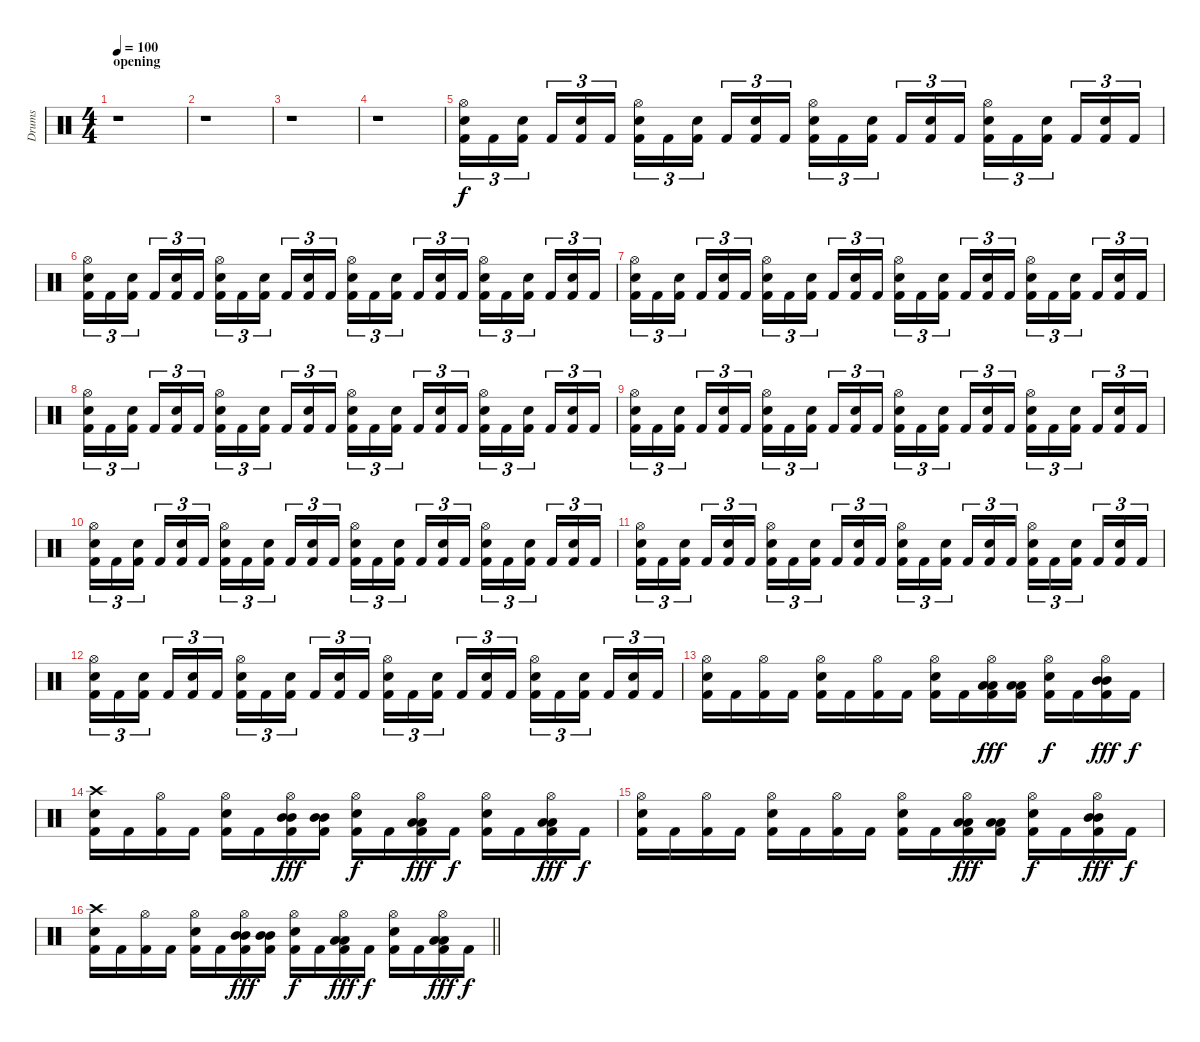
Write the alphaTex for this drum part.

\track ("Drums" "Drums") {instrument percussion}
\staff {score}
\articulation defaults
\ts (4 4)
\section ("" "opening")
\tempo 100
\clef neutral
\ks c
r.1{dy f} |
r.1 |
r.1 |
r.1 |
("Hi-Hat (open)" "Electric Snare (hit)" "Kick (hit) 2").16{tu (3 2)} "Kick (hit) 2".16{tu (3 2)} ("Electric Snare (hit)" "Kick (hit) 2").16{tu (3 2)} "Kick (hit) 2".16{tu (3 2)} ("Electric Snare (hit)" "Kick (hit) 2").16{tu (3 2)} "Kick (hit) 2".16{tu (3 2)} ("Hi-Hat (open)" "Electric Snare (hit)" "Kick (hit) 2").16{tu (3 2)} "Kick (hit) 2".16{tu (3 2)} ("Electric Snare (hit)" "Kick (hit) 2").16{tu (3 2)} "Kick (hit) 2".16{tu (3 2)} ("Electric Snare (hit)" "Kick (hit) 2").16{tu (3 2)} "Kick (hit) 2".16{tu (3 2)} ("Hi-Hat (open)" "Electric Snare (hit)" "Kick (hit) 2").16{tu (3 2)} "Kick (hit) 2".16{tu (3 2)} ("Electric Snare (hit)" "Kick (hit) 2").16{tu (3 2)} "Kick (hit) 2".16{tu (3 2)} ("Electric Snare (hit)" "Kick (hit) 2").16{tu (3 2)} "Kick (hit) 2".16{tu (3 2)} ("Hi-Hat (open)" "Electric Snare (hit)" "Kick (hit) 2").16{tu (3 2)} "Kick (hit) 2".16{tu (3 2)} ("Electric Snare (hit)" "Kick (hit) 2").16{tu (3 2)} "Kick (hit) 2".16{tu (3 2)} ("Electric Snare (hit)" "Kick (hit) 2").16{tu (3 2)} "Kick (hit) 2".16{tu (3 2)} |
("Hi-Hat (open)" "Electric Snare (hit)" "Kick (hit) 2").16{tu (3 2)} "Kick (hit) 2".16{tu (3 2)} ("Electric Snare (hit)" "Kick (hit) 2").16{tu (3 2)} "Kick (hit) 2".16{tu (3 2)} ("Electric Snare (hit)" "Kick (hit) 2").16{tu (3 2)} "Kick (hit) 2".16{tu (3 2)} ("Hi-Hat (open)" "Electric Snare (hit)" "Kick (hit) 2").16{tu (3 2)} "Kick (hit) 2".16{tu (3 2)} ("Electric Snare (hit)" "Kick (hit) 2").16{tu (3 2)} "Kick (hit) 2".16{tu (3 2)} ("Electric Snare (hit)" "Kick (hit) 2").16{tu (3 2)} "Kick (hit) 2".16{tu (3 2)} ("Hi-Hat (open)" "Electric Snare (hit)" "Kick (hit) 2").16{tu (3 2)} "Kick (hit) 2".16{tu (3 2)} ("Electric Snare (hit)" "Kick (hit) 2").16{tu (3 2)} "Kick (hit) 2".16{tu (3 2)} ("Electric Snare (hit)" "Kick (hit) 2").16{tu (3 2)} "Kick (hit) 2".16{tu (3 2)} ("Hi-Hat (open)" "Electric Snare (hit)" "Kick (hit) 2").16{tu (3 2)} "Kick (hit) 2".16{tu (3 2)} ("Electric Snare (hit)" "Kick (hit) 2").16{tu (3 2)} "Kick (hit) 2".16{tu (3 2)} ("Electric Snare (hit)" "Kick (hit) 2").16{tu (3 2)} "Kick (hit) 2".16{tu (3 2)} |
("Hi-Hat (open)" "Electric Snare (hit)" "Kick (hit) 2").16{tu (3 2)} "Kick (hit) 2".16{tu (3 2)} ("Electric Snare (hit)" "Kick (hit) 2").16{tu (3 2)} "Kick (hit) 2".16{tu (3 2)} ("Electric Snare (hit)" "Kick (hit) 2").16{tu (3 2)} "Kick (hit) 2".16{tu (3 2)} ("Hi-Hat (open)" "Electric Snare (hit)" "Kick (hit) 2").16{tu (3 2)} "Kick (hit) 2".16{tu (3 2)} ("Electric Snare (hit)" "Kick (hit) 2").16{tu (3 2)} "Kick (hit) 2".16{tu (3 2)} ("Electric Snare (hit)" "Kick (hit) 2").16{tu (3 2)} "Kick (hit) 2".16{tu (3 2)} ("Hi-Hat (open)" "Electric Snare (hit)" "Kick (hit) 2").16{tu (3 2)} "Kick (hit) 2".16{tu (3 2)} ("Electric Snare (hit)" "Kick (hit) 2").16{tu (3 2)} "Kick (hit) 2".16{tu (3 2)} ("Electric Snare (hit)" "Kick (hit) 2").16{tu (3 2)} "Kick (hit) 2".16{tu (3 2)} ("Hi-Hat (open)" "Electric Snare (hit)" "Kick (hit) 2").16{tu (3 2)} "Kick (hit) 2".16{tu (3 2)} ("Electric Snare (hit)" "Kick (hit) 2").16{tu (3 2)} "Kick (hit) 2".16{tu (3 2)} ("Electric Snare (hit)" "Kick (hit) 2").16{tu (3 2)} "Kick (hit) 2".16{tu (3 2)} |
("Hi-Hat (open)" "Electric Snare (hit)" "Kick (hit) 2").16{tu (3 2)} "Kick (hit) 2".16{tu (3 2)} ("Electric Snare (hit)" "Kick (hit) 2").16{tu (3 2)} "Kick (hit) 2".16{tu (3 2)} ("Electric Snare (hit)" "Kick (hit) 2").16{tu (3 2)} "Kick (hit) 2".16{tu (3 2)} ("Hi-Hat (open)" "Electric Snare (hit)" "Kick (hit) 2").16{tu (3 2)} "Kick (hit) 2".16{tu (3 2)} ("Electric Snare (hit)" "Kick (hit) 2").16{tu (3 2)} "Kick (hit) 2".16{tu (3 2)} ("Electric Snare (hit)" "Kick (hit) 2").16{tu (3 2)} "Kick (hit) 2".16{tu (3 2)} ("Hi-Hat (open)" "Electric Snare (hit)" "Kick (hit) 2").16{tu (3 2)} "Kick (hit) 2".16{tu (3 2)} ("Electric Snare (hit)" "Kick (hit) 2").16{tu (3 2)} "Kick (hit) 2".16{tu (3 2)} ("Electric Snare (hit)" "Kick (hit) 2").16{tu (3 2)} "Kick (hit) 2".16{tu (3 2)} ("Hi-Hat (open)" "Electric Snare (hit)" "Kick (hit) 2").16{tu (3 2)} "Kick (hit) 2".16{tu (3 2)} ("Electric Snare (hit)" "Kick (hit) 2").16{tu (3 2)} "Kick (hit) 2".16{tu (3 2)} ("Electric Snare (hit)" "Kick (hit) 2").16{tu (3 2)} "Kick (hit) 2".16{tu (3 2)} |
("Hi-Hat (open)" "Electric Snare (hit)" "Kick (hit) 2").16{tu (3 2)} "Kick (hit) 2".16{tu (3 2)} ("Electric Snare (hit)" "Kick (hit) 2").16{tu (3 2)} "Kick (hit) 2".16{tu (3 2)} ("Electric Snare (hit)" "Kick (hit) 2").16{tu (3 2)} "Kick (hit) 2".16{tu (3 2)} ("Hi-Hat (open)" "Electric Snare (hit)" "Kick (hit) 2").16{tu (3 2)} "Kick (hit) 2".16{tu (3 2)} ("Electric Snare (hit)" "Kick (hit) 2").16{tu (3 2)} "Kick (hit) 2".16{tu (3 2)} ("Electric Snare (hit)" "Kick (hit) 2").16{tu (3 2)} "Kick (hit) 2".16{tu (3 2)} ("Hi-Hat (open)" "Electric Snare (hit)" "Kick (hit) 2").16{tu (3 2)} "Kick (hit) 2".16{tu (3 2)} ("Electric Snare (hit)" "Kick (hit) 2").16{tu (3 2)} "Kick (hit) 2".16{tu (3 2)} ("Electric Snare (hit)" "Kick (hit) 2").16{tu (3 2)} "Kick (hit) 2".16{tu (3 2)} ("Hi-Hat (open)" "Electric Snare (hit)" "Kick (hit) 2").16{tu (3 2)} "Kick (hit) 2".16{tu (3 2)} ("Electric Snare (hit)" "Kick (hit) 2").16{tu (3 2)} "Kick (hit) 2".16{tu (3 2)} ("Electric Snare (hit)" "Kick (hit) 2").16{tu (3 2)} "Kick (hit) 2".16{tu (3 2)} |
("Hi-Hat (open)" "Electric Snare (hit)" "Kick (hit) 2").16{tu (3 2)} "Kick (hit) 2".16{tu (3 2)} ("Electric Snare (hit)" "Kick (hit) 2").16{tu (3 2)} "Kick (hit) 2".16{tu (3 2)} ("Electric Snare (hit)" "Kick (hit) 2").16{tu (3 2)} "Kick (hit) 2".16{tu (3 2)} ("Hi-Hat (open)" "Electric Snare (hit)" "Kick (hit) 2").16{tu (3 2)} "Kick (hit) 2".16{tu (3 2)} ("Electric Snare (hit)" "Kick (hit) 2").16{tu (3 2)} "Kick (hit) 2".16{tu (3 2)} ("Electric Snare (hit)" "Kick (hit) 2").16{tu (3 2)} "Kick (hit) 2".16{tu (3 2)} ("Hi-Hat (open)" "Electric Snare (hit)" "Kick (hit) 2").16{tu (3 2)} "Kick (hit) 2".16{tu (3 2)} ("Electric Snare (hit)" "Kick (hit) 2").16{tu (3 2)} "Kick (hit) 2".16{tu (3 2)} ("Electric Snare (hit)" "Kick (hit) 2").16{tu (3 2)} "Kick (hit) 2".16{tu (3 2)} ("Hi-Hat (open)" "Electric Snare (hit)" "Kick (hit) 2").16{tu (3 2)} "Kick (hit) 2".16{tu (3 2)} ("Electric Snare (hit)" "Kick (hit) 2").16{tu (3 2)} "Kick (hit) 2".16{tu (3 2)} ("Electric Snare (hit)" "Kick (hit) 2").16{tu (3 2)} "Kick (hit) 2".16{tu (3 2)} |
("Hi-Hat (open)" "Electric Snare (hit)" "Kick (hit) 2").16{tu (3 2)} "Kick (hit) 2".16{tu (3 2)} ("Electric Snare (hit)" "Kick (hit) 2").16{tu (3 2)} "Kick (hit) 2".16{tu (3 2)} ("Electric Snare (hit)" "Kick (hit) 2").16{tu (3 2)} "Kick (hit) 2".16{tu (3 2)} ("Hi-Hat (open)" "Electric Snare (hit)" "Kick (hit) 2").16{tu (3 2)} "Kick (hit) 2".16{tu (3 2)} ("Electric Snare (hit)" "Kick (hit) 2").16{tu (3 2)} "Kick (hit) 2".16{tu (3 2)} ("Electric Snare (hit)" "Kick (hit) 2").16{tu (3 2)} "Kick (hit) 2".16{tu (3 2)} ("Hi-Hat (open)" "Electric Snare (hit)" "Kick (hit) 2").16{tu (3 2)} "Kick (hit) 2".16{tu (3 2)} ("Electric Snare (hit)" "Kick (hit) 2").16{tu (3 2)} "Kick (hit) 2".16{tu (3 2)} ("Electric Snare (hit)" "Kick (hit) 2").16{tu (3 2)} "Kick (hit) 2".16{tu (3 2)} ("Hi-Hat (open)" "Electric Snare (hit)" "Kick (hit) 2").16{tu (3 2)} "Kick (hit) 2".16{tu (3 2)} ("Electric Snare (hit)" "Kick (hit) 2").16{tu (3 2)} "Kick (hit) 2".16{tu (3 2)} ("Electric Snare (hit)" "Kick (hit) 2").16{tu (3 2)} "Kick (hit) 2".16{tu (3 2)} |
("Hi-Hat (open)" "Electric Snare (hit)" "Kick (hit) 2").16{tu (3 2)} "Kick (hit) 2".16{tu (3 2)} ("Electric Snare (hit)" "Kick (hit) 2").16{tu (3 2)} "Kick (hit) 2".16{tu (3 2)} ("Electric Snare (hit)" "Kick (hit) 2").16{tu (3 2)} "Kick (hit) 2".16{tu (3 2)} ("Hi-Hat (open)" "Electric Snare (hit)" "Kick (hit) 2").16{tu (3 2)} "Kick (hit) 2".16{tu (3 2)} ("Electric Snare (hit)" "Kick (hit) 2").16{tu (3 2)} "Kick (hit) 2".16{tu (3 2)} ("Electric Snare (hit)" "Kick (hit) 2").16{tu (3 2)} "Kick (hit) 2".16{tu (3 2)} ("Hi-Hat (open)" "Electric Snare (hit)" "Kick (hit) 2").16{tu (3 2)} "Kick (hit) 2".16{tu (3 2)} ("Electric Snare (hit)" "Kick (hit) 2").16{tu (3 2)} "Kick (hit) 2".16{tu (3 2)} ("Electric Snare (hit)" "Kick (hit) 2").16{tu (3 2)} "Kick (hit) 2".16{tu (3 2)} ("Hi-Hat (open)" "Electric Snare (hit)" "Kick (hit) 2").16{tu (3 2)} "Kick (hit) 2".16{tu (3 2)} ("Electric Snare (hit)" "Kick (hit) 2").16{tu (3 2)} "Kick (hit) 2".16{tu (3 2)} ("Electric Snare (hit)" "Kick (hit) 2").16{tu (3 2)} "Kick (hit) 2".16{tu (3 2)} |
("Hi-Hat (open)" "Electric Snare (hit)" "Kick (hit) 2").16 "Kick (hit) 2".16 ("Hi-Hat (open)" "Kick (hit) 2").16 "Kick (hit) 2".16 ("Hi-Hat (open)" "Electric Snare (hit)" "Kick (hit) 2").16 "Kick (hit) 2".16 ("Hi-Hat (open)" "Kick (hit) 2").16 "Kick (hit) 2".16 ("Hi-Hat (open)" "Electric Snare (hit)" "Kick (hit) 2").16 "Kick (hit) 2".16 ("Hi-Hat (open)" "Low Tom (hit)" "Low Tom (hit)" "Kick (hit) 2").16{dy fff} ("Low Tom (hit)" "Low Tom (hit)" "Kick (hit) 2").16 ("Hi-Hat (open)" "Electric Snare (hit)" "Kick (hit) 2").16{dy f} "Kick (hit) 2".16 ("Hi-Hat (open)" "Mid Tom (hit)" "Mid Tom (hit)" "Kick (hit) 2").16{dy fff} "Kick (hit) 2".16{dy f} |
("Crash high (hit)" "Electric Snare (hit)" "Kick (hit) 2").16 "Kick (hit) 2".16 ("Hi-Hat (open)" "Kick (hit) 2").16 "Kick (hit) 2".16 ("Hi-Hat (open)" "Electric Snare (hit)" "Kick (hit) 2").16 "Kick (hit) 2".16 ("Hi-Hat (open)" "Mid Tom (hit)" "Mid Tom (hit)" "Kick (hit) 2").16{dy fff} ("Mid Tom (hit)" "Mid Tom (hit)" "Kick (hit) 2").16 ("Hi-Hat (open)" "Electric Snare (hit)" "Kick (hit) 2").16{dy f} "Kick (hit) 2".16 ("Hi-Hat (open)" "Low Tom (hit)" "Low Tom (hit)" "Kick (hit) 2").16{dy fff} "Kick (hit) 2".16{dy f} ("Hi-Hat (open)" "Electric Snare (hit)" "Kick (hit) 2").16 "Kick (hit) 2".16 ("Hi-Hat (open)" "Low Tom (hit)" "Low Tom (hit)" "Kick (hit) 2").16{dy fff} "Kick (hit) 2".16{dy f} |
("Hi-Hat (open)" "Electric Snare (hit)" "Kick (hit) 2").16 "Kick (hit) 2".16 ("Hi-Hat (open)" "Kick (hit) 2").16 "Kick (hit) 2".16 ("Hi-Hat (open)" "Electric Snare (hit)" "Kick (hit) 2").16 "Kick (hit) 2".16 ("Hi-Hat (open)" "Kick (hit) 2").16 "Kick (hit) 2".16 ("Hi-Hat (open)" "Electric Snare (hit)" "Kick (hit) 2").16 "Kick (hit) 2".16 ("Hi-Hat (open)" "Low Tom (hit)" "Low Tom (hit)" "Kick (hit) 2").16{dy fff} ("Low Tom (hit)" "Low Tom (hit)" "Kick (hit) 2").16 ("Hi-Hat (open)" "Electric Snare (hit)" "Kick (hit) 2").16{dy f} "Kick (hit) 2".16 ("Hi-Hat (open)" "Mid Tom (hit)" "Mid Tom (hit)" "Kick (hit) 2").16{dy fff} "Kick (hit) 2".16{dy f} |
\barLineRight lightlight
("Crash high (hit)" "Electric Snare (hit)" "Kick (hit) 2").16 "Kick (hit) 2".16 ("Hi-Hat (open)" "Kick (hit) 2").16 "Kick (hit) 2".16 ("Hi-Hat (open)" "Electric Snare (hit)" "Kick (hit) 2").16 "Kick (hit) 2".16 ("Hi-Hat (open)" "Mid Tom (hit)" "Mid Tom (hit)" "Kick (hit) 2").16{dy fff} ("Mid Tom (hit)" "Mid Tom (hit)" "Kick (hit) 2").16 ("Hi-Hat (open)" "Electric Snare (hit)" "Kick (hit) 2").16{dy f} "Kick (hit) 2".16 ("Hi-Hat (open)" "Low Tom (hit)" "Low Tom (hit)" "Kick (hit) 2").16{dy fff} "Kick (hit) 2".16{dy f} ("Hi-Hat (open)" "Electric Snare (hit)" "Kick (hit) 2").16 "Kick (hit) 2".16 ("Hi-Hat (open)" "Low Tom (hit)" "Low Tom (hit)" "Kick (hit) 2").16{dy fff} "Kick (hit) 2".16{dy f}
